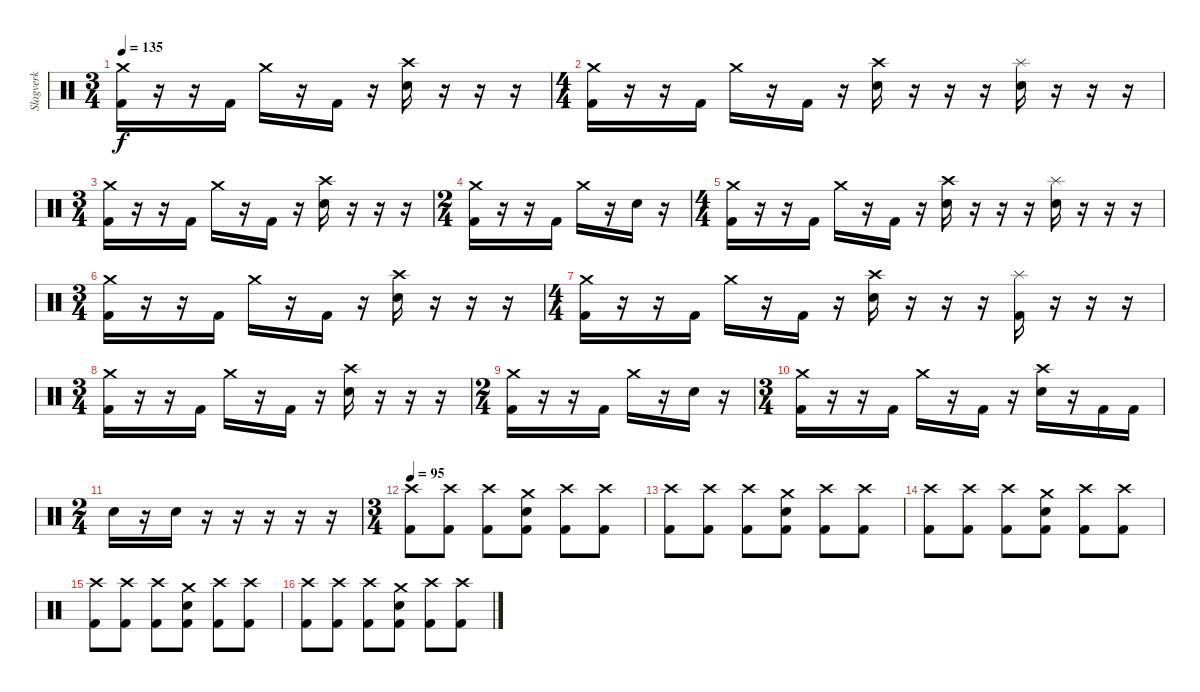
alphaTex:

\track ("Slagverk" "Slagverk") {instrument percussion}
\staff {score}
\articulation defaults
\ts (3 4)
\tempo 135
\clef neutral
\ks c
("Crash medium (hit)" "Kick (hit) 2").16{dy f} r.16 r.16 "Kick (hit) 2".16 "Crash medium (hit)".16 r.16 "Kick (hit) 2".16 r.16 ("Crash high (hit)" "Electric Snare (hit)").16 r.16 r.16 r.16 |
\ts (4 4)
("Crash medium (hit)" "Kick (hit) 2").16 r.16 r.16 "Kick (hit) 2".16 "Crash medium (hit)".16 r.16 "Kick (hit) 2".16 r.16 ("Crash high (hit)" "Electric Snare (hit)").16 r.16 r.16 r.16 ("Splash (hit)" "Electric Snare (hit)").16 r.16 r.16 r.16 |
\ts (3 4)
("Crash medium (hit)" "Kick (hit) 2").16 r.16 r.16 "Kick (hit) 2".16 "Crash medium (hit)".16 r.16 "Kick (hit) 2".16 r.16 ("Crash high (hit)" "Electric Snare (hit)").16 r.16 r.16 r.16 |
\ts (2 4)
("Crash medium (hit)" "Kick (hit) 2").16 r.16 r.16 "Kick (hit) 2".16 "Crash medium (hit)".16 r.16 "Electric Snare (hit)".16 r.16 |
\ts (4 4)
("Crash medium (hit)" "Kick (hit) 2").16 r.16 r.16 "Kick (hit) 2".16 "Crash medium (hit)".16 r.16 "Kick (hit) 2".16 r.16 ("Crash high (hit)" "Electric Snare (hit)").16 r.16 r.16 r.16 ("Splash (hit)" "Electric Snare (hit)").16 r.16 r.16 r.16 |
\ts (3 4)
("Crash medium (hit)" "Kick (hit) 2").16 r.16 r.16 "Kick (hit) 2".16 "Crash medium (hit)".16 r.16 "Kick (hit) 2".16 r.16 ("Crash high (hit)" "Electric Snare (hit)").16 r.16 r.16 r.16 |
\ts (4 4)
("Crash medium (hit)" "Kick (hit) 2").16 r.16 r.16 "Kick (hit) 2".16 "Crash medium (hit)".16 r.16 "Kick (hit) 2".16 r.16 ("Crash high (hit)" "Electric Snare (hit)").16 r.16 r.16 r.16 ("Splash (hit)" "Kick (hit) 2").16 r.16 r.16 r.16 |
\ts (3 4)
("Crash medium (hit)" "Kick (hit) 2").16 r.16 r.16 "Kick (hit) 2".16 "Crash medium (hit)".16 r.16 "Kick (hit) 2".16 r.16 ("Crash high (hit)" "Electric Snare (hit)").16 r.16 r.16 r.16 |
\ts (2 4)
("Crash medium (hit)" "Kick (hit) 2").16 r.16 r.16 "Kick (hit) 2".16 "Crash medium (hit)".16 r.16 "Electric Snare (hit)".16 r.16 |
\ts (3 4)
("Crash medium (hit)" "Kick (hit) 2").16 r.16 r.16 "Kick (hit) 2".16 "Crash medium (hit)".16 r.16 "Kick (hit) 2".16 r.16 ("Crash high (hit)" "Electric Snare (hit)").16 r.16 "Kick (hit) 2".16 "Kick (hit) 2".16 |
\ts (2 4)
"Electric Snare (hit)".16 r.16 "Electric Snare (hit)".16 r.16 r.16 r.16 r.16 r.16 |
\ts (3 4)
\tempo 95
("Crash high (hit)" "Kick (hit) 2").8 ("Crash high (hit)" "Kick (hit) 2").8 ("Crash high (hit)" "Kick (hit) 2").8 ("Crash medium (hit)" "Electric Snare (hit)" "Kick (hit) 2").8 ("Crash high (hit)" "Kick (hit) 2").8 ("Crash high (hit)" "Kick (hit) 2").8 |
("Crash high (hit)" "Kick (hit) 2").8 ("Crash high (hit)" "Kick (hit) 2").8 ("Crash high (hit)" "Kick (hit) 2").8 ("Crash medium (hit)" "Electric Snare (hit)" "Kick (hit) 2").8 ("Crash high (hit)" "Kick (hit) 2").8 ("Crash high (hit)" "Kick (hit) 2").8 |
("Crash high (hit)" "Kick (hit) 2").8 ("Crash high (hit)" "Kick (hit) 2").8 ("Crash high (hit)" "Kick (hit) 2").8 ("Crash medium (hit)" "Electric Snare (hit)" "Kick (hit) 2").8 ("Crash high (hit)" "Kick (hit) 2").8 ("Crash high (hit)" "Kick (hit) 2").8 |
("Crash high (hit)" "Kick (hit) 2").8 ("Crash high (hit)" "Kick (hit) 2").8 ("Crash high (hit)" "Kick (hit) 2").8 ("Crash medium (hit)" "Electric Snare (hit)" "Kick (hit) 2").8 ("Crash high (hit)" "Kick (hit) 2").8 ("Crash high (hit)" "Kick (hit) 2").8 |
("Crash high (hit)" "Kick (hit) 2").8 ("Crash high (hit)" "Kick (hit) 2").8 ("Crash high (hit)" "Kick (hit) 2").8 ("Crash medium (hit)" "Electric Snare (hit)" "Kick (hit) 2").8 ("Crash high (hit)" "Kick (hit) 2").8 ("Crash high (hit)" "Kick (hit) 2").8
